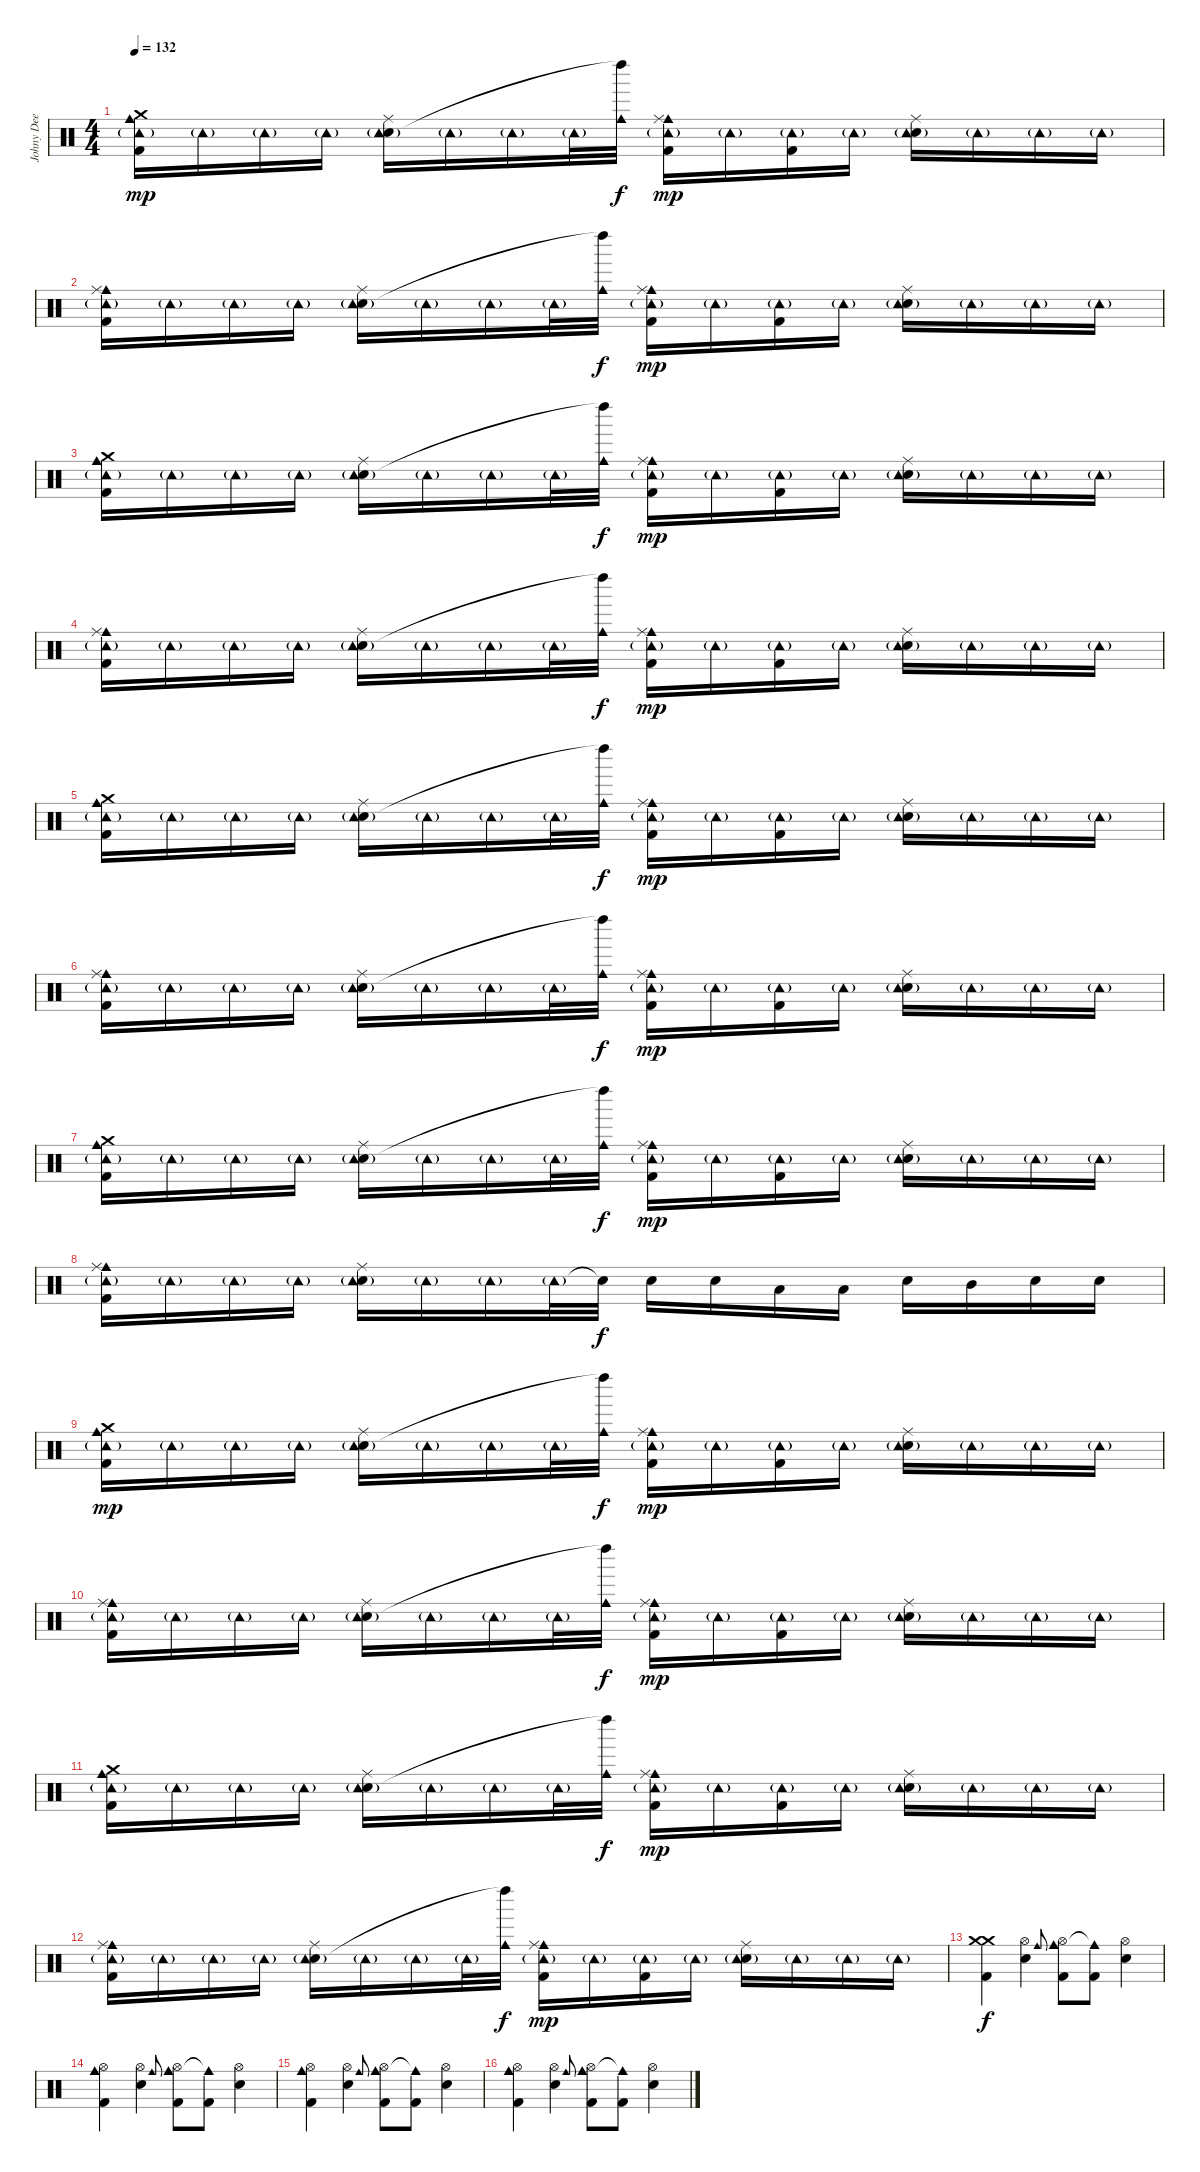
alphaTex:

\track ("Johny Dee" "Johny Dee") {instrument percussion}
\staff {score}
\articulation defaults
\ts (4 4)
\tempo 132
\clef neutral
\ks c
("Cowbell medium (hit)" "Crash medium (hit)" "Tambourine (hit)"{g} "Kick (hit) 2").16{dy mp} "Tambourine (hit)"{g}.16 "Tambourine (hit)"{g}.16 "Tambourine (hit)"{g}.16 ("Ride (middle)" "Snare (hit) 2" "Tambourine (hit)"{g}).16 "Tambourine (hit)"{g}.16 "Tambourine (hit)"{g}.16 "Tambourine (hit)"{g}.32 ("Cowbell medium (hit)" "Left Maraca (hit)"{t}).32{dy f} ("Cowbell medium (hit)" "Ride (middle)" "Tambourine (hit)"{g} "Kick (hit) 2").16{dy mp} "Tambourine (hit)"{g}.16 ("Tambourine (hit)"{g} "Kick (hit) 2").16 "Tambourine (hit)"{g}.16 ("Ride (middle)" "Snare (hit) 2" "Tambourine (hit)"{g}).16 "Tambourine (hit)"{g}.16 "Tambourine (hit)"{g}.16 "Tambourine (hit)"{g}.16 |
("Cowbell medium (hit)" "Ride (middle)" "Tambourine (hit)"{g} "Kick (hit) 2").16 "Tambourine (hit)"{g}.16 "Tambourine (hit)"{g}.16 "Tambourine (hit)"{g}.16 ("Ride (middle)" "Snare (hit) 2" "Tambourine (hit)"{g}).16 "Tambourine (hit)"{g}.16 "Tambourine (hit)"{g}.16 "Tambourine (hit)"{g}.32 ("Cowbell medium (hit)" "Left Maraca (hit)"{t}).32{dy f} ("Cowbell medium (hit)" "Ride (middle)" "Tambourine (hit)"{g} "Kick (hit) 2").16{dy mp} "Tambourine (hit)"{g}.16 ("Tambourine (hit)"{g} "Kick (hit) 2").16 "Tambourine (hit)"{g}.16 ("Ride (middle)" "Snare (hit) 2" "Tambourine (hit)"{g}).16 "Tambourine (hit)"{g}.16 "Tambourine (hit)"{g}.16 "Tambourine (hit)"{g}.16 |
("Cowbell medium (hit)" "Crash medium (hit)" "Tambourine (hit)"{g} "Kick (hit) 2").16 "Tambourine (hit)"{g}.16 "Tambourine (hit)"{g}.16 "Tambourine (hit)"{g}.16 ("Ride (middle)" "Snare (hit) 2" "Tambourine (hit)"{g}).16 "Tambourine (hit)"{g}.16 "Tambourine (hit)"{g}.16 "Tambourine (hit)"{g}.32 ("Cowbell medium (hit)" "Left Maraca (hit)"{t}).32{dy f} ("Cowbell medium (hit)" "Ride (middle)" "Tambourine (hit)"{g} "Kick (hit) 2").16{dy mp} "Tambourine (hit)"{g}.16 ("Tambourine (hit)"{g} "Kick (hit) 2").16 "Tambourine (hit)"{g}.16 ("Ride (middle)" "Snare (hit) 2" "Tambourine (hit)"{g}).16 "Tambourine (hit)"{g}.16 "Tambourine (hit)"{g}.16 "Tambourine (hit)"{g}.16 |
("Cowbell medium (hit)" "Ride (middle)" "Tambourine (hit)"{g} "Kick (hit) 2").16 "Tambourine (hit)"{g}.16 "Tambourine (hit)"{g}.16 "Tambourine (hit)"{g}.16 ("Ride (middle)" "Snare (hit) 2" "Tambourine (hit)"{g}).16 "Tambourine (hit)"{g}.16 "Tambourine (hit)"{g}.16 "Tambourine (hit)"{g}.32 ("Cowbell medium (hit)" "Left Maraca (hit)"{t}).32{dy f} ("Cowbell medium (hit)" "Ride (middle)" "Tambourine (hit)"{g} "Kick (hit) 2").16{dy mp} "Tambourine (hit)"{g}.16 ("Tambourine (hit)"{g} "Kick (hit) 2").16 "Tambourine (hit)"{g}.16 ("Ride (middle)" "Snare (hit) 2" "Tambourine (hit)"{g}).16 "Tambourine (hit)"{g}.16 "Tambourine (hit)"{g}.16 "Tambourine (hit)"{g}.16 |
("Cowbell medium (hit)" "Crash medium (hit)" "Tambourine (hit)"{g} "Kick (hit) 2").16 "Tambourine (hit)"{g}.16 "Tambourine (hit)"{g}.16 "Tambourine (hit)"{g}.16 ("Ride (middle)" "Snare (hit) 2" "Tambourine (hit)"{g}).16 "Tambourine (hit)"{g}.16 "Tambourine (hit)"{g}.16 "Tambourine (hit)"{g}.32 ("Cowbell medium (hit)" "Left Maraca (hit)"{t}).32{dy f} ("Cowbell medium (hit)" "Ride (middle)" "Tambourine (hit)"{g} "Kick (hit) 2").16{dy mp} "Tambourine (hit)"{g}.16 ("Tambourine (hit)"{g} "Kick (hit) 2").16 "Tambourine (hit)"{g}.16 ("Ride (middle)" "Snare (hit) 2" "Tambourine (hit)"{g}).16 "Tambourine (hit)"{g}.16 "Tambourine (hit)"{g}.16 "Tambourine (hit)"{g}.16 |
("Cowbell medium (hit)" "Ride (middle)" "Tambourine (hit)"{g} "Kick (hit) 2").16 "Tambourine (hit)"{g}.16 "Tambourine (hit)"{g}.16 "Tambourine (hit)"{g}.16 ("Ride (middle)" "Snare (hit) 2" "Tambourine (hit)"{g}).16 "Tambourine (hit)"{g}.16 "Tambourine (hit)"{g}.16 "Tambourine (hit)"{g}.32 ("Cowbell medium (hit)" "Left Maraca (hit)"{t}).32{dy f} ("Cowbell medium (hit)" "Ride (middle)" "Tambourine (hit)"{g} "Kick (hit) 2").16{dy mp} "Tambourine (hit)"{g}.16 ("Tambourine (hit)"{g} "Kick (hit) 2").16 "Tambourine (hit)"{g}.16 ("Ride (middle)" "Snare (hit) 2" "Tambourine (hit)"{g}).16 "Tambourine (hit)"{g}.16 "Tambourine (hit)"{g}.16 "Tambourine (hit)"{g}.16 |
("Cowbell medium (hit)" "Crash medium (hit)" "Tambourine (hit)"{g} "Kick (hit) 2").16 "Tambourine (hit)"{g}.16 "Tambourine (hit)"{g}.16 "Tambourine (hit)"{g}.16 ("Ride (middle)" "Snare (hit) 2" "Tambourine (hit)"{g}).16 "Tambourine (hit)"{g}.16 "Tambourine (hit)"{g}.16 "Tambourine (hit)"{g}.32 ("Cowbell medium (hit)" "Left Maraca (hit)"{t}).32{dy f} ("Cowbell medium (hit)" "Ride (middle)" "Tambourine (hit)"{g} "Kick (hit) 2").16{dy mp} "Tambourine (hit)"{g}.16 ("Tambourine (hit)"{g} "Kick (hit) 2").16 "Tambourine (hit)"{g}.16 ("Ride (middle)" "Snare (hit) 2" "Tambourine (hit)"{g}).16 "Tambourine (hit)"{g}.16 "Tambourine (hit)"{g}.16 "Tambourine (hit)"{g}.16 |
("Cowbell medium (hit)" "Ride (middle)" "Tambourine (hit)"{g} "Kick (hit) 2").16 "Tambourine (hit)"{g}.16 "Tambourine (hit)"{g}.16 "Tambourine (hit)"{g}.16 ("Ride (middle)" "Snare (hit) 2" "Tambourine (hit)"{g}).16 "Tambourine (hit)"{g}.16 "Tambourine (hit)"{g}.16 "Tambourine (hit)"{g}.32 "Snare (hit)"{t}.32{dy f} "Snare (hit) 2".16 "Snare (hit) 2".16 "Low Tom (hit)".16 "Low Tom (hit)".16 "Snare (hit) 2".16 "Mid Tom (hit)".16 "Snare (hit) 2".16 "Snare (hit) 2".16 |
("Cowbell medium (hit)" "Crash medium (hit)" "Tambourine (hit)"{g} "Kick (hit) 2").16{dy mp} "Tambourine (hit)"{g}.16 "Tambourine (hit)"{g}.16 "Tambourine (hit)"{g}.16 ("Ride (middle)" "Snare (hit) 2" "Tambourine (hit)"{g}).16 "Tambourine (hit)"{g}.16 "Tambourine (hit)"{g}.16 "Tambourine (hit)"{g}.32 ("Cowbell medium (hit)" "Left Maraca (hit)"{t}).32{dy f} ("Cowbell medium (hit)" "Ride (middle)" "Tambourine (hit)"{g} "Kick (hit) 2").16{dy mp} "Tambourine (hit)"{g}.16 ("Tambourine (hit)"{g} "Kick (hit) 2").16 "Tambourine (hit)"{g}.16 ("Ride (middle)" "Snare (hit) 2" "Tambourine (hit)"{g}).16 "Tambourine (hit)"{g}.16 "Tambourine (hit)"{g}.16 "Tambourine (hit)"{g}.16 |
("Cowbell medium (hit)" "Ride (middle)" "Tambourine (hit)"{g} "Kick (hit) 2").16 "Tambourine (hit)"{g}.16 "Tambourine (hit)"{g}.16 "Tambourine (hit)"{g}.16 ("Ride (middle)" "Snare (hit) 2" "Tambourine (hit)"{g}).16 "Tambourine (hit)"{g}.16 "Tambourine (hit)"{g}.16 "Tambourine (hit)"{g}.32 ("Cowbell medium (hit)" "Left Maraca (hit)"{t}).32{dy f} ("Cowbell medium (hit)" "Ride (middle)" "Tambourine (hit)"{g} "Kick (hit) 2").16{dy mp} "Tambourine (hit)"{g}.16 ("Tambourine (hit)"{g} "Kick (hit) 2").16 "Tambourine (hit)"{g}.16 ("Ride (middle)" "Snare (hit) 2" "Tambourine (hit)"{g}).16 "Tambourine (hit)"{g}.16 "Tambourine (hit)"{g}.16 "Tambourine (hit)"{g}.16 |
("Cowbell medium (hit)" "Crash medium (hit)" "Tambourine (hit)"{g} "Kick (hit) 2").16 "Tambourine (hit)"{g}.16 "Tambourine (hit)"{g}.16 "Tambourine (hit)"{g}.16 ("Ride (middle)" "Snare (hit) 2" "Tambourine (hit)"{g}).16 "Tambourine (hit)"{g}.16 "Tambourine (hit)"{g}.16 "Tambourine (hit)"{g}.32 ("Cowbell medium (hit)" "Left Maraca (hit)"{t}).32{dy f} ("Cowbell medium (hit)" "Ride (middle)" "Tambourine (hit)"{g} "Kick (hit) 2").16{dy mp} "Tambourine (hit)"{g}.16 ("Tambourine (hit)"{g} "Kick (hit) 2").16 "Tambourine (hit)"{g}.16 ("Ride (middle)" "Snare (hit) 2" "Tambourine (hit)"{g}).16 "Tambourine (hit)"{g}.16 "Tambourine (hit)"{g}.16 "Tambourine (hit)"{g}.16 |
("Cowbell medium (hit)" "Ride (middle)" "Tambourine (hit)"{g} "Kick (hit) 2").16 "Tambourine (hit)"{g}.16 "Tambourine (hit)"{g}.16 "Tambourine (hit)"{g}.16 ("Ride (middle)" "Snare (hit) 2" "Tambourine (hit)"{g}).16 "Tambourine (hit)"{g}.16 "Tambourine (hit)"{g}.16 "Tambourine (hit)"{g}.32 ("Cowbell medium (hit)" "Left Maraca (hit)"{t}).32{dy f} ("Cowbell medium (hit)" "Ride (middle)" "Tambourine (hit)"{g} "Kick (hit) 2").16{dy mp} "Tambourine (hit)"{g}.16 ("Tambourine (hit)"{g} "Kick (hit) 2").16 "Tambourine (hit)"{g}.16 ("Ride (middle)" "Snare (hit) 2" "Tambourine (hit)"{g}).16 "Tambourine (hit)"{g}.16 "Tambourine (hit)"{g}.16 "Tambourine (hit)"{g}.16 |
("Crash medium (hit)" "Kick (hit) 2" "Crash medium (hit)").4{dy f} ("Snare (hit) 2" "Hi-Hat (open)").4 "Cowbell medium (hit)".8{gr onbeat} ("Cowbell medium (hit)" "Kick (hit) 2" "Hi-Hat (open)").8 ("Cowbell medium (hit)"{t} "Kick (hit) 2").8 ("Snare (hit) 2" "Hi-Hat (open)").4 |
("Cowbell medium (hit)" "Kick (hit) 2" "Hi-Hat (open)").4 ("Snare (hit) 2" "Hi-Hat (open)").4 "Cowbell medium (hit)".8{gr onbeat} ("Cowbell medium (hit)" "Kick (hit) 2" "Hi-Hat (open)").8 ("Cowbell medium (hit)"{t} "Kick (hit) 2").8 ("Snare (hit) 2" "Hi-Hat (open)").4 |
("Cowbell medium (hit)" "Kick (hit) 2" "Hi-Hat (open)").4 ("Snare (hit) 2" "Hi-Hat (open)").4 "Cowbell medium (hit)".8{gr onbeat} ("Cowbell medium (hit)" "Kick (hit) 2" "Hi-Hat (open)").8 ("Cowbell medium (hit)"{t} "Kick (hit) 2").8 ("Snare (hit) 2" "Hi-Hat (open)").4 |
("Cowbell medium (hit)" "Kick (hit) 2" "Hi-Hat (open)").4 ("Snare (hit) 2" "Hi-Hat (open)").4 "Cowbell medium (hit)".8{gr onbeat} ("Cowbell medium (hit)" "Kick (hit) 2" "Hi-Hat (open)").8 ("Cowbell medium (hit)"{t} "Kick (hit) 2").8 ("Snare (hit) 2" "Hi-Hat (open)").4
